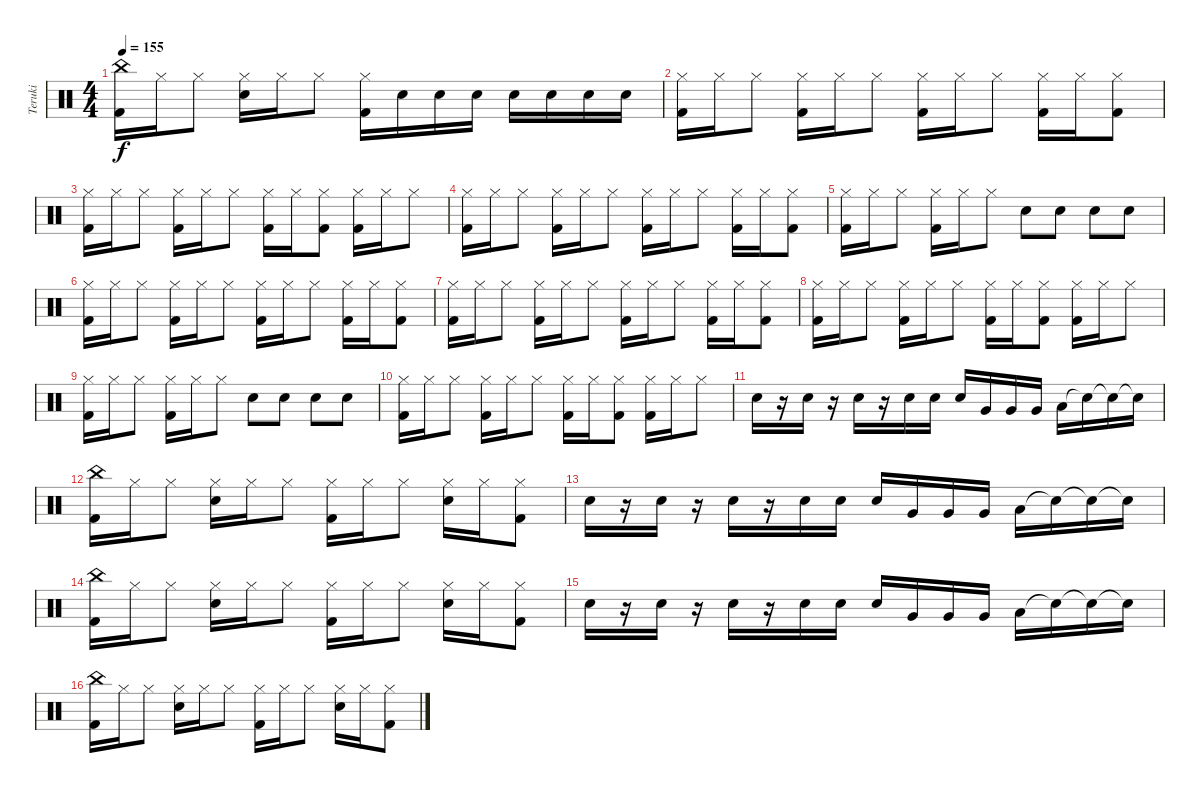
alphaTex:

\track ("Teruki" "Teruki") {instrument percussion}
\staff {score}
\articulation defaults
\ts (4 4)
\tempo 155
\clef neutral
\ks c
("China (hit)" "Kick (hit) 2").16{dy f} "Hi-Hat (closed)".16 "Hi-Hat (closed)".8 ("Hi-Hat (closed)" "Snare (hit) 2").16 "Hi-Hat (closed)".16 "Hi-Hat (closed)".8 ("Hi-Hat (closed)" "Kick (hit) 2").16 "Snare (hit) 2".16 "Snare (hit) 2".16 "Snare (hit) 2".16 "Snare (hit) 2".16 "Snare (hit) 2".16 "Snare (hit) 2".16 "Snare (hit) 2".16 |
("Hi-Hat (closed)" "Kick (hit) 2").16 "Hi-Hat (closed)".16 "Hi-Hat (closed)".8 ("Hi-Hat (closed)" "Kick (hit) 2").16 "Hi-Hat (closed)".16 "Hi-Hat (closed)".8 ("Hi-Hat (closed)" "Kick (hit) 2").16 "Hi-Hat (closed)".16 "Hi-Hat (closed)".8 ("Hi-Hat (closed)" "Kick (hit) 2").16 "Hi-Hat (closed)".16 ("Hi-Hat (closed)" "Kick (hit) 2").8 |
("Hi-Hat (closed)" "Kick (hit) 2").16 "Hi-Hat (closed)".16 "Hi-Hat (closed)".8 ("Hi-Hat (closed)" "Kick (hit) 2").16 "Hi-Hat (closed)".16 "Hi-Hat (closed)".8 ("Hi-Hat (closed)" "Kick (hit) 2").16 "Hi-Hat (closed)".16 ("Hi-Hat (closed)" "Kick (hit) 2").8 ("Hi-Hat (closed)" "Kick (hit) 2").16 "Hi-Hat (closed)".16 "Hi-Hat (closed)".8 |
("Hi-Hat (closed)" "Kick (hit) 2").16 "Hi-Hat (closed)".16 "Hi-Hat (closed)".8 ("Hi-Hat (closed)" "Kick (hit) 2").16 "Hi-Hat (closed)".16 "Hi-Hat (closed)".8 ("Hi-Hat (closed)" "Kick (hit) 2").16 "Hi-Hat (closed)".16 "Hi-Hat (closed)".8 ("Hi-Hat (closed)" "Kick (hit) 2").16 "Hi-Hat (closed)".16 ("Hi-Hat (closed)" "Kick (hit) 2").8 |
("Hi-Hat (closed)" "Kick (hit) 2").16 "Hi-Hat (closed)".16 "Hi-Hat (closed)".8 ("Hi-Hat (closed)" "Kick (hit) 2").16 "Hi-Hat (closed)".16 "Hi-Hat (closed)".8 "Snare (hit) 2".8 "Snare (hit) 2".8 "Snare (hit) 2".8 "Snare (hit) 2".8 |
("Hi-Hat (closed)" "Kick (hit) 2").16 "Hi-Hat (closed)".16 "Hi-Hat (closed)".8 ("Hi-Hat (closed)" "Kick (hit) 2").16 "Hi-Hat (closed)".16 "Hi-Hat (closed)".8 ("Hi-Hat (closed)" "Kick (hit) 2").16 "Hi-Hat (closed)".16 "Hi-Hat (closed)".8 ("Hi-Hat (closed)" "Kick (hit) 2").16 "Hi-Hat (closed)".16 ("Hi-Hat (closed)" "Kick (hit) 2").8 |
("Hi-Hat (closed)" "Kick (hit) 2").16 "Hi-Hat (closed)".16 "Hi-Hat (closed)".8 ("Hi-Hat (closed)" "Kick (hit) 2").16 "Hi-Hat (closed)".16 "Hi-Hat (closed)".8 ("Hi-Hat (closed)" "Kick (hit) 2").16 "Hi-Hat (closed)".16 "Hi-Hat (closed)".8 ("Hi-Hat (closed)" "Kick (hit) 2").16 "Hi-Hat (closed)".16 ("Hi-Hat (closed)" "Kick (hit) 2").8 |
("Hi-Hat (closed)" "Kick (hit) 2").16 "Hi-Hat (closed)".16 "Hi-Hat (closed)".8 ("Hi-Hat (closed)" "Kick (hit) 2").16 "Hi-Hat (closed)".16 "Hi-Hat (closed)".8 ("Hi-Hat (closed)" "Kick (hit) 2").16 "Hi-Hat (closed)".16 ("Hi-Hat (closed)" "Kick (hit) 2").8 ("Hi-Hat (closed)" "Kick (hit) 2").16 "Hi-Hat (closed)".16 "Hi-Hat (closed)".8 |
("Hi-Hat (closed)" "Kick (hit) 2").16 "Hi-Hat (closed)".16 "Hi-Hat (closed)".8 ("Hi-Hat (closed)" "Kick (hit) 2").16 "Hi-Hat (closed)".16 "Hi-Hat (closed)".8 "Snare (hit) 2".8 "Snare (hit) 2".8 "Snare (hit) 2".8 "Snare (hit) 2".8 |
("Hi-Hat (closed)" "Kick (hit) 2").16 "Hi-Hat (closed)".16 "Hi-Hat (closed)".8 ("Hi-Hat (closed)" "Kick (hit) 2").16 "Hi-Hat (closed)".16 "Hi-Hat (closed)".8 ("Hi-Hat (closed)" "Kick (hit) 2").16 "Hi-Hat (closed)".16 ("Hi-Hat (closed)" "Kick (hit) 2").8 ("Hi-Hat (closed)" "Kick (hit) 2").16 "Hi-Hat (closed)".16 "Hi-Hat (closed)".8 |
"Snare (hit) 2".16 r.16 "Snare (hit) 2".16 r.16 "Snare (hit) 2".16 r.16 "Snare (hit) 2".16 "Snare (hit) 2".16 "Snare (hit) 2".16 "Very Low Tom (hit)".16 "Very Low Tom (hit)".16 "Very Low Tom (hit)".16 "Low Floor Tom (hit)".16 "Snare (hit)"{t}.16 "Snare (hit)"{t}.16 "Snare (hit)"{t}.16 |
("China (hit)" "Kick (hit) 2").16 "Hi-Hat (closed)".16 "Hi-Hat (closed)".8 ("Hi-Hat (closed)" "Snare (hit) 2").16 "Hi-Hat (closed)".16 "Hi-Hat (closed)".8 ("Hi-Hat (closed)" "Kick (hit) 2").16 "Hi-Hat (closed)".16 "Hi-Hat (closed)".8 ("Hi-Hat (closed)" "Snare (hit) 2").16 "Hi-Hat (closed)".16 ("Hi-Hat (closed)" "Kick (hit) 2").8 |
"Snare (hit) 2".16 r.16 "Snare (hit) 2".16 r.16 "Snare (hit) 2".16 r.16 "Snare (hit) 2".16 "Snare (hit) 2".16 "Snare (hit) 2".16 "Very Low Tom (hit)".16 "Very Low Tom (hit)".16 "Very Low Tom (hit)".16 "Low Floor Tom (hit)".16 "Snare (hit)"{t}.16 "Snare (hit)"{t}.16 "Snare (hit)"{t}.16 |
("China (hit)" "Kick (hit) 2").16 "Hi-Hat (closed)".16 "Hi-Hat (closed)".8 ("Hi-Hat (closed)" "Snare (hit) 2").16 "Hi-Hat (closed)".16 "Hi-Hat (closed)".8 ("Hi-Hat (closed)" "Kick (hit) 2").16 "Hi-Hat (closed)".16 "Hi-Hat (closed)".8 ("Hi-Hat (closed)" "Snare (hit) 2").16 "Hi-Hat (closed)".16 ("Hi-Hat (closed)" "Kick (hit) 2").8 |
"Snare (hit) 2".16 r.16 "Snare (hit) 2".16 r.16 "Snare (hit) 2".16 r.16 "Snare (hit) 2".16 "Snare (hit) 2".16 "Snare (hit) 2".16 "Very Low Tom (hit)".16 "Very Low Tom (hit)".16 "Very Low Tom (hit)".16 "Low Floor Tom (hit)".16 "Snare (hit)"{t}.16 "Snare (hit)"{t}.16 "Snare (hit)"{t}.16 |
("China (hit)" "Kick (hit) 2").16 "Hi-Hat (closed)".16 "Hi-Hat (closed)".8 ("Hi-Hat (closed)" "Snare (hit) 2").16 "Hi-Hat (closed)".16 "Hi-Hat (closed)".8 ("Hi-Hat (closed)" "Kick (hit) 2").16 "Hi-Hat (closed)".16 "Hi-Hat (closed)".8 ("Hi-Hat (closed)" "Snare (hit) 2").16 "Hi-Hat (closed)".16 ("Hi-Hat (closed)" "Kick (hit) 2").8
